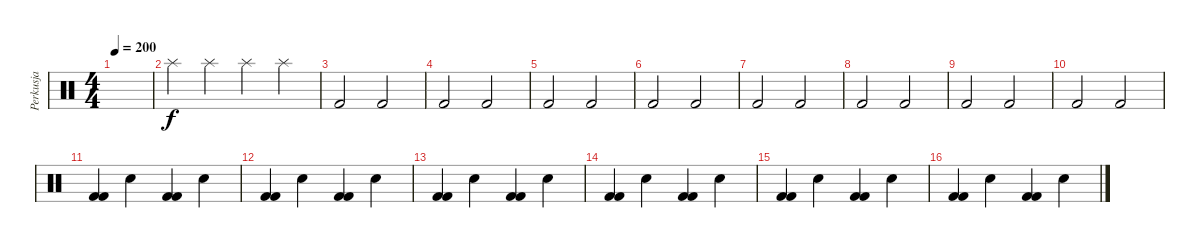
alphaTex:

\track ("Perkusja" "Perkusja") {instrument percussion}
\staff {score}
\articulation defaults
\ts (4 4)
\tempo 200
\clef neutral
\ks c
|
"Splash (hit)".4 "Splash (hit)".4 "Splash (hit)".4 "Splash (hit)".4 |
"Kick (hit) 2".2 "Kick (hit) 2".2 |
"Kick (hit) 2".2 "Kick (hit) 2".2 |
"Kick (hit) 2".2 "Kick (hit) 2".2 |
"Kick (hit) 2".2 "Kick (hit) 2".2 |
"Kick (hit) 2".2 "Kick (hit) 2".2 |
"Kick (hit) 2".2 "Kick (hit) 2".2 |
"Kick (hit) 2".2 "Kick (hit) 2".2 |
"Kick (hit) 2".2 "Kick (hit) 2".2 |
("Kick (hit) 2" "Kick (hit) 2").4 "Snare (hit) 2".4 ("Kick (hit) 2" "Kick (hit) 2").4 "Snare (hit) 2".4 |
("Kick (hit) 2" "Kick (hit) 2").4 "Snare (hit) 2".4 ("Kick (hit) 2" "Kick (hit) 2").4 "Snare (hit) 2".4 |
("Kick (hit) 2" "Kick (hit) 2").4 "Snare (hit) 2".4 ("Kick (hit) 2" "Kick (hit) 2").4 "Snare (hit) 2".4 |
("Kick (hit) 2" "Kick (hit) 2").4 "Snare (hit) 2".4 ("Kick (hit) 2" "Kick (hit) 2").4 "Snare (hit) 2".4 |
("Kick (hit) 2" "Kick (hit) 2").4 "Snare (hit) 2".4 ("Kick (hit) 2" "Kick (hit) 2").4 "Snare (hit) 2".4 |
("Kick (hit) 2" "Kick (hit) 2").4 "Snare (hit) 2".4 ("Kick (hit) 2" "Kick (hit) 2").4 "Snare (hit) 2".4
